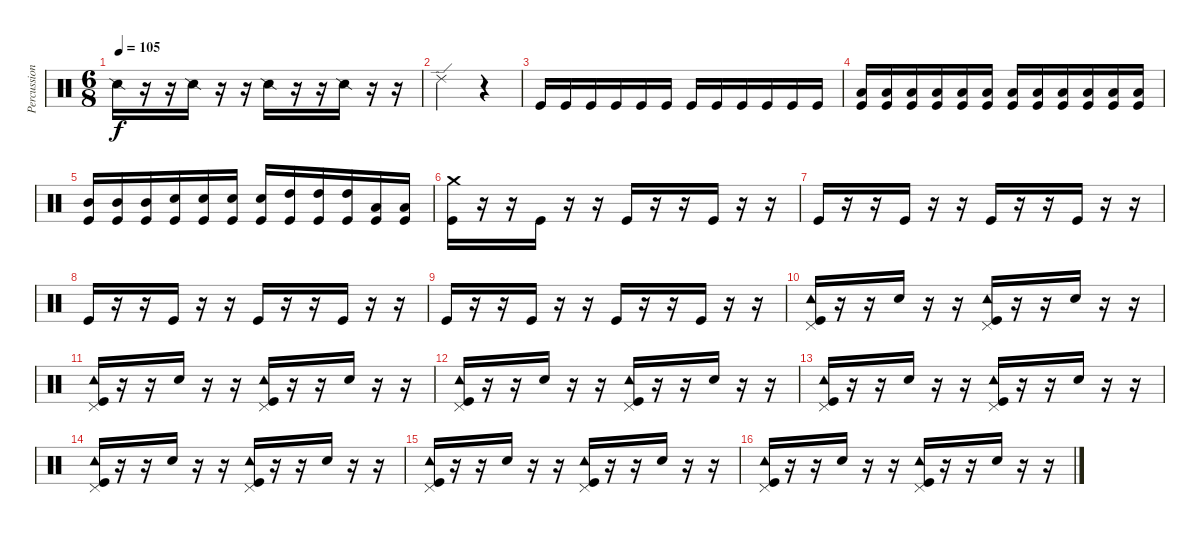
\track ("Percussions" "Percussion") {instrument percussion}
\staff {score}
\articulation defaults
\ts (6 8)
\tempo 105
\clef neutral
\ks c "Snare (side stick) 2".16{dy f}
r.16 r.16 "Snare (side stick) 2".16 r.16 r.16 "Snare (side stick) 2".16 r.16 r.16 "Snare (side stick) 2".16 r.16 r.16 |
"Ride (edge) 2".2 r.4 |
"Kick (hit)".16 "Kick (hit)".16 "Kick (hit)".16 "Kick (hit)".16 "Kick (hit)".16 "Kick (hit)".16 "Kick (hit)".16 "Kick (hit)".16 "Kick (hit)".16 "Kick (hit)".16 "Kick (hit)".16 "Kick (hit)".16 |
("Low Tom (hit)" "Kick (hit)").16 ("Low Tom (hit)" "Kick (hit)").16 ("Low Tom (hit)" "Kick (hit)").16 ("Low Tom (hit)" "Kick (hit)").16 ("Low Tom (hit)" "Kick (hit)").16 ("Low Tom (hit)" "Kick (hit)").16 ("Low Tom (hit)" "Kick (hit)").16 ("Low Tom (hit)" "Kick (hit)").16 ("Low Tom (hit)" "Kick (hit)").16 ("Low Tom (hit)" "Kick (hit)").16 ("Low Tom (hit)" "Kick (hit)").16 ("Low Tom (hit)" "Kick (hit)").16 |
("Mid Tom (hit)" "Kick (hit)").16 ("Mid Tom (hit)" "Kick (hit)").16 ("Mid Tom (hit)" "Kick (hit)").16 ("Snare (hit) 2" "Kick (hit)").16 ("Snare (hit) 2" "Kick (hit)").16 ("Snare (hit) 2" "Kick (hit)").16 ("Snare (hit) 2" "Kick (hit)").16 ("High Tom (hit)" "Kick (hit)").16 ("High Tom (hit)" "Kick (hit)").16 ("High Tom (hit)" "Kick (hit)").16 ("Low Tom (hit)" "Kick (hit)").16 ("Low Tom (hit)" "Kick (hit)").16 |
("Crash medium (hit)" "Kick (hit)").16 r.16 r.16 "Kick (hit)".16 r.16 r.16 "Kick (hit)".16 r.16 r.16 "Kick (hit)".16 r.16 r.16 |
"Kick (hit)".16 r.16 r.16 "Kick (hit)".16 r.16 r.16 "Kick (hit)".16 r.16 r.16 "Kick (hit)".16 r.16 r.16 |
"Kick (hit)".16 r.16 r.16 "Kick (hit)".16 r.16 r.16 "Kick (hit)".16 r.16 r.16 "Kick (hit)".16 r.16 r.16 |
"Kick (hit)".16 r.16 r.16 "Kick (hit)".16 r.16 r.16 "Kick (hit)".16 r.16 r.16 "Kick (hit)".16 r.16 r.16 |
("Pedal Hi-Hat (hit)" "Tambourine (hit)" "Kick (hit)").16 r.16 r.16 "Snare (hit) 2".16 r.16 r.16 ("Pedal Hi-Hat (hit)" "Tambourine (hit)" "Kick (hit)").16 r.16 r.16 "Snare (hit) 2".16 r.16 r.16 |
("Pedal Hi-Hat (hit)" "Tambourine (hit)" "Kick (hit)").16 r.16 r.16 "Snare (hit) 2".16 r.16 r.16 ("Pedal Hi-Hat (hit)" "Tambourine (hit)" "Kick (hit)").16 r.16 r.16 "Snare (hit) 2".16 r.16 r.16 |
("Pedal Hi-Hat (hit)" "Tambourine (hit)" "Kick (hit)").16 r.16 r.16 "Snare (hit) 2".16 r.16 r.16 ("Pedal Hi-Hat (hit)" "Tambourine (hit)" "Kick (hit)").16 r.16 r.16 "Snare (hit) 2".16 r.16 r.16 |
("Pedal Hi-Hat (hit)" "Tambourine (hit)" "Kick (hit)").16 r.16 r.16 "Snare (hit) 2".16 r.16 r.16 ("Pedal Hi-Hat (hit)" "Tambourine (hit)" "Kick (hit)").16 r.16 r.16 "Snare (hit) 2".16 r.16 r.16 |
("Pedal Hi-Hat (hit)" "Tambourine (hit)" "Kick (hit)").16 r.16 r.16 "Snare (hit) 2".16 r.16 r.16 ("Pedal Hi-Hat (hit)" "Tambourine (hit)" "Kick (hit)").16 r.16 r.16 "Snare (hit) 2".16 r.16 r.16 |
("Pedal Hi-Hat (hit)" "Tambourine (hit)" "Kick (hit)").16 r.16 r.16 "Snare (hit) 2".16 r.16 r.16 ("Pedal Hi-Hat (hit)" "Tambourine (hit)" "Kick (hit)").16 r.16 r.16 "Snare (hit) 2".16 r.16 r.16 |
("Pedal Hi-Hat (hit)" "Tambourine (hit)" "Kick (hit)").16 r.16 r.16 "Snare (hit) 2".16 r.16 r.16 ("Pedal Hi-Hat (hit)" "Tambourine (hit)" "Kick (hit)").16 r.16 r.16 "Snare (hit) 2".16 r.16 r.16
